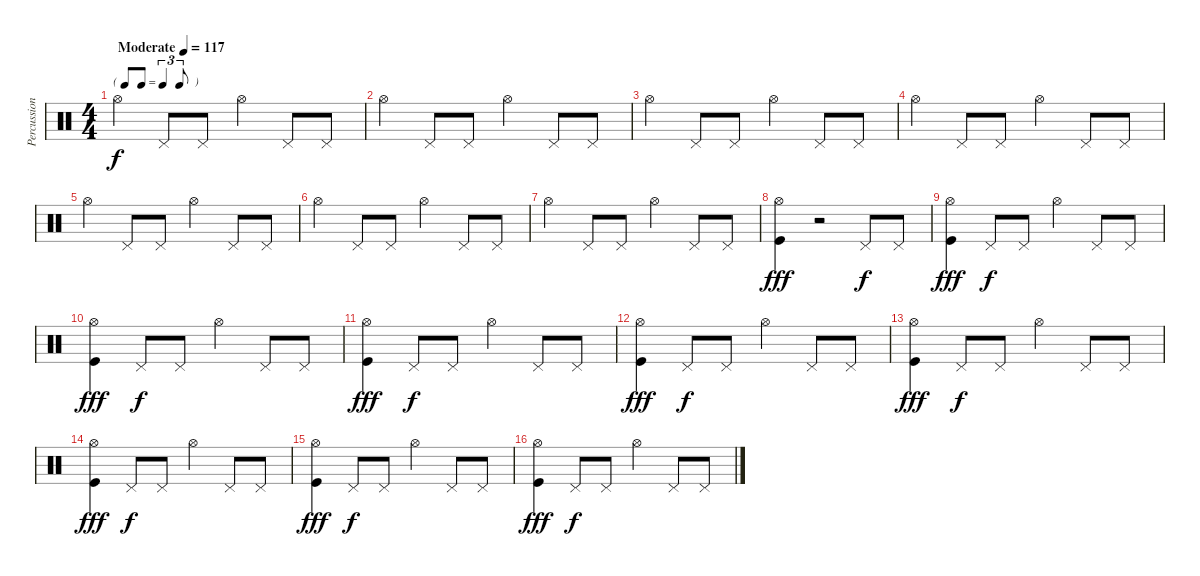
\track ("Percussions" "Percussion") {instrument percussion}
\staff {score}
\articulation defaults
\ts (4 4)
\tf triplet8th
\tempo (117 "Moderate")
\clef neutral
\ks c "Hi-Hat (open)".4{dy f} "Pedal Hi-Hat (hit)".8 "Pedal Hi-Hat (hit)".8 "Hi-Hat (open)".4 "Pedal Hi-Hat (hit)".8 "Pedal Hi-Hat (hit)".8
|
"Hi-Hat (open)".4 "Pedal Hi-Hat (hit)".8 "Pedal Hi-Hat (hit)".8 "Hi-Hat (open)".4 "Pedal Hi-Hat (hit)".8 "Pedal Hi-Hat (hit)".8 |
"Hi-Hat (open)".4 "Pedal Hi-Hat (hit)".8 "Pedal Hi-Hat (hit)".8 "Hi-Hat (open)".4 "Pedal Hi-Hat (hit)".8 "Pedal Hi-Hat (hit)".8 |
"Hi-Hat (open)".4 "Pedal Hi-Hat (hit)".8 "Pedal Hi-Hat (hit)".8 "Hi-Hat (open)".4 "Pedal Hi-Hat (hit)".8 "Pedal Hi-Hat (hit)".8 |
"Hi-Hat (open)".4 "Pedal Hi-Hat (hit)".8 "Pedal Hi-Hat (hit)".8 "Hi-Hat (open)".4 "Pedal Hi-Hat (hit)".8 "Pedal Hi-Hat (hit)".8 |
"Hi-Hat (open)".4 "Pedal Hi-Hat (hit)".8 "Pedal Hi-Hat (hit)".8 "Hi-Hat (open)".4 "Pedal Hi-Hat (hit)".8 "Pedal Hi-Hat (hit)".8 |
"Hi-Hat (open)".4 "Pedal Hi-Hat (hit)".8 "Pedal Hi-Hat (hit)".8 "Hi-Hat (open)".4 "Pedal Hi-Hat (hit)".8 "Pedal Hi-Hat (hit)".8 |
("Hi-Hat (open)" "Kick (hit)").4{dy fff} r.2 "Pedal Hi-Hat (hit)".8{dy f} "Pedal Hi-Hat (hit)".8 |
("Hi-Hat (open)" "Kick (hit)").4{dy fff} "Pedal Hi-Hat (hit)".8{dy f} "Pedal Hi-Hat (hit)".8 "Hi-Hat (open)".4 "Pedal Hi-Hat (hit)".8 "Pedal Hi-Hat (hit)".8 |
("Hi-Hat (open)" "Kick (hit)").4{dy fff} "Pedal Hi-Hat (hit)".8{dy f} "Pedal Hi-Hat (hit)".8 "Hi-Hat (open)".4 "Pedal Hi-Hat (hit)".8 "Pedal Hi-Hat (hit)".8 |
("Hi-Hat (open)" "Kick (hit)").4{dy fff} "Pedal Hi-Hat (hit)".8{dy f} "Pedal Hi-Hat (hit)".8 "Hi-Hat (open)".4 "Pedal Hi-Hat (hit)".8 "Pedal Hi-Hat (hit)".8 |
("Hi-Hat (open)" "Kick (hit)").4{dy fff} "Pedal Hi-Hat (hit)".8{dy f} "Pedal Hi-Hat (hit)".8 "Hi-Hat (open)".4 "Pedal Hi-Hat (hit)".8 "Pedal Hi-Hat (hit)".8 |
("Hi-Hat (open)" "Kick (hit)").4{dy fff} "Pedal Hi-Hat (hit)".8{dy f} "Pedal Hi-Hat (hit)".8 "Hi-Hat (open)".4 "Pedal Hi-Hat (hit)".8 "Pedal Hi-Hat (hit)".8 |
("Hi-Hat (open)" "Kick (hit)").4{dy fff} "Pedal Hi-Hat (hit)".8{dy f} "Pedal Hi-Hat (hit)".8 "Hi-Hat (open)".4 "Pedal Hi-Hat (hit)".8 "Pedal Hi-Hat (hit)".8 |
("Hi-Hat (open)" "Kick (hit)").4{dy fff} "Pedal Hi-Hat (hit)".8{dy f} "Pedal Hi-Hat (hit)".8 "Hi-Hat (open)".4 "Pedal Hi-Hat (hit)".8 "Pedal Hi-Hat (hit)".8 |
("Hi-Hat (open)" "Kick (hit)").4{dy fff} "Pedal Hi-Hat (hit)".8{dy f} "Pedal Hi-Hat (hit)".8 "Hi-Hat (open)".4 "Pedal Hi-Hat (hit)".8 "Pedal Hi-Hat (hit)".8
